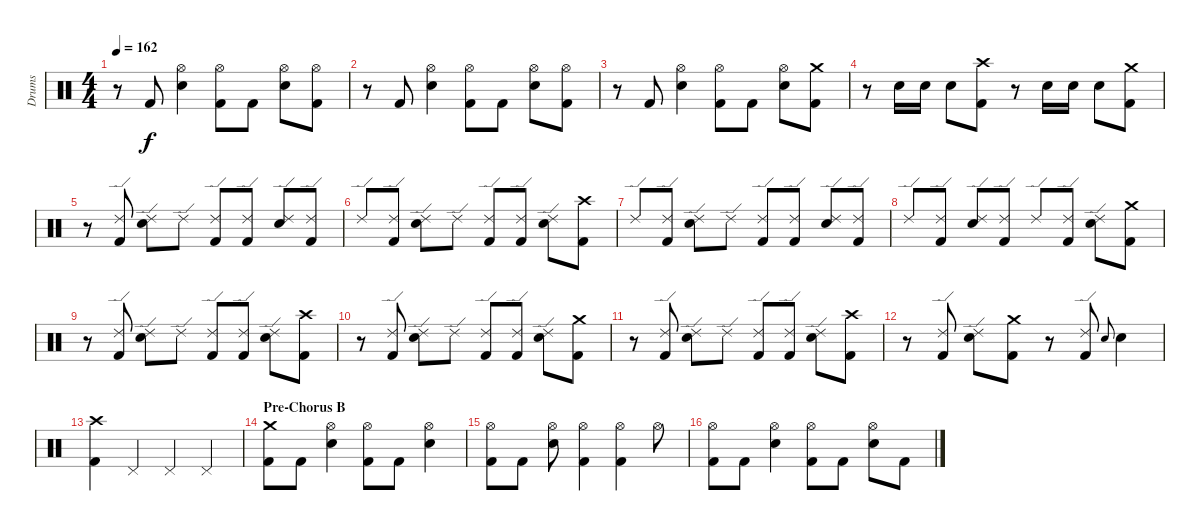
\track ("Drums" "Drums") {instrument percussion}
\staff {score}
\articulation defaults
\ts (4 4)
\tempo 162
\clef neutral
\ks c
r.8{dy f} "Kick (hit) 2".8 ("Hi-Hat (open)" "Snare (hit) 2").4 ("Hi-Hat (open)" "Kick (hit) 2").8 "Kick (hit) 2".8 ("Hi-Hat (open)" "Snare (hit) 2").8 ("Hi-Hat (open)" "Kick (hit) 2").8 |
r.8 "Kick (hit) 2".8 ("Hi-Hat (open)" "Snare (hit) 2").4 ("Hi-Hat (open)" "Kick (hit) 2").8 "Kick (hit) 2".8 ("Hi-Hat (open)" "Snare (hit) 2").8 ("Hi-Hat (open)" "Kick (hit) 2").8 |
r.8 "Kick (hit) 2".8 ("Hi-Hat (open)" "Snare (hit) 2").4 ("Hi-Hat (open)" "Kick (hit) 2").8 "Kick (hit) 2".8 ("Hi-Hat (open)" "Snare (hit) 2").8 ("Crash medium (hit)" "Kick (hit) 2").8 |
r.8 "Snare (hit) 2".16 "Snare (hit) 2".16 "Snare (hit) 2".8 ("Crash high (hit)" "Kick (hit) 2").8 r.8 "Snare (hit) 2".16 "Snare (hit) 2".16 "Snare (hit) 2".8 ("Crash medium (hit)" "Kick (hit) 2").8 |
r.8 ("Ride (edge) 2" "Kick (hit) 2").8 ("Ride (edge) 2" "Snare (hit) 2").8 "Ride (edge) 2".8 ("Ride (edge) 2" "Kick (hit) 2").8 ("Ride (edge) 2" "Kick (hit) 2").8 ("Ride (edge) 2" "Snare (hit) 2").8 ("Ride (edge) 2" "Kick (hit) 2").8 |
"Ride (edge) 2".8 ("Ride (edge) 2" "Kick (hit) 2").8 ("Ride (edge) 2" "Snare (hit) 2").8 "Ride (edge) 2".8 ("Ride (edge) 2" "Kick (hit) 2").8 ("Ride (edge) 2" "Kick (hit) 2").8 ("Ride (edge) 2" "Snare (hit) 2").8 ("Crash high (hit)" "Kick (hit) 2").8 |
"Ride (edge) 2".8 ("Ride (edge) 2" "Kick (hit) 2").8 ("Ride (edge) 2" "Snare (hit) 2").8 "Ride (edge) 2".8 ("Ride (edge) 2" "Kick (hit) 2").8 ("Ride (edge) 2" "Kick (hit) 2").8 ("Ride (edge) 2" "Snare (hit) 2").8 ("Ride (edge) 2" "Kick (hit) 2").8 |
"Ride (edge) 2".8 ("Ride (edge) 2" "Kick (hit) 2").8 ("Ride (edge) 2" "Snare (hit) 2").8 ("Ride (edge) 2" "Kick (hit) 2").8 "Ride (edge) 2".8 ("Ride (edge) 2" "Kick (hit) 2").8 ("Ride (edge) 2" "Snare (hit) 2").8 ("Crash medium (hit)" "Kick (hit) 2").8 |
r.8 ("Ride (edge) 2" "Kick (hit) 2").8 ("Ride (edge) 2" "Snare (hit) 2").8 "Ride (edge) 2".8 ("Ride (edge) 2" "Kick (hit) 2").8 ("Ride (edge) 2" "Kick (hit) 2").8 ("Ride (edge) 2" "Snare (hit) 2").8 ("Crash high (hit)" "Kick (hit) 2").8 |
r.8 ("Ride (edge) 2" "Kick (hit) 2").8 ("Ride (edge) 2" "Snare (hit) 2").8 "Ride (edge) 2".8 ("Ride (edge) 2" "Kick (hit) 2").8 ("Ride (edge) 2" "Kick (hit) 2").8 ("Ride (edge) 2" "Snare (hit) 2").8 ("Crash medium (hit)" "Kick (hit) 2").8 |
r.8 ("Ride (edge) 2" "Kick (hit) 2").8 ("Ride (edge) 2" "Snare (hit) 2").8 "Ride (edge) 2".8 ("Ride (edge) 2" "Kick (hit) 2").8 ("Ride (edge) 2" "Kick (hit) 2").8 ("Ride (edge) 2" "Snare (hit) 2").8 ("Crash high (hit)" "Kick (hit) 2").8 |
r.8 ("Ride (edge) 2" "Kick (hit) 2").8 ("Ride (edge) 2" "Snare (hit) 2").8 ("Crash medium (hit)" "Kick (hit) 2").8 r.8 ("Ride (edge) 2" "Kick (hit) 2").8 "Snare (hit) 2".8{gr onbeat} "Snare (hit) 2".4 |
\section ("" "")
("Crash high (hit)" "Kick (hit) 2").4 "Pedal Hi-Hat (hit)".4 "Pedal Hi-Hat (hit)".4 "Pedal Hi-Hat (hit)".4 |
\section ("" "Pre-Chorus B")
("Crash medium (hit)" "Kick (hit) 2").8 "Kick (hit) 2".8 ("Hi-Hat (open)" "Snare (hit) 2").4 ("Hi-Hat (open)" "Kick (hit) 2").8 "Kick (hit) 2".8 ("Hi-Hat (open)" "Snare (hit) 2").4 |
("Hi-Hat (open)" "Kick (hit) 2").8 "Kick (hit) 2".8 ("Hi-Hat (open)" "Snare (hit) 2").8 ("Hi-Hat (open)" "Kick (hit) 2").4 ("Hi-Hat (open)" "Kick (hit) 2").4 "Hi-Hat (open)".8 |
("Hi-Hat (open)" "Kick (hit) 2").8 "Kick (hit) 2".8 ("Hi-Hat (open)" "Snare (hit) 2").4 ("Hi-Hat (open)" "Kick (hit) 2").8 "Kick (hit) 2".8 ("Hi-Hat (open)" "Snare (hit) 2").8 "Kick (hit) 2".8
